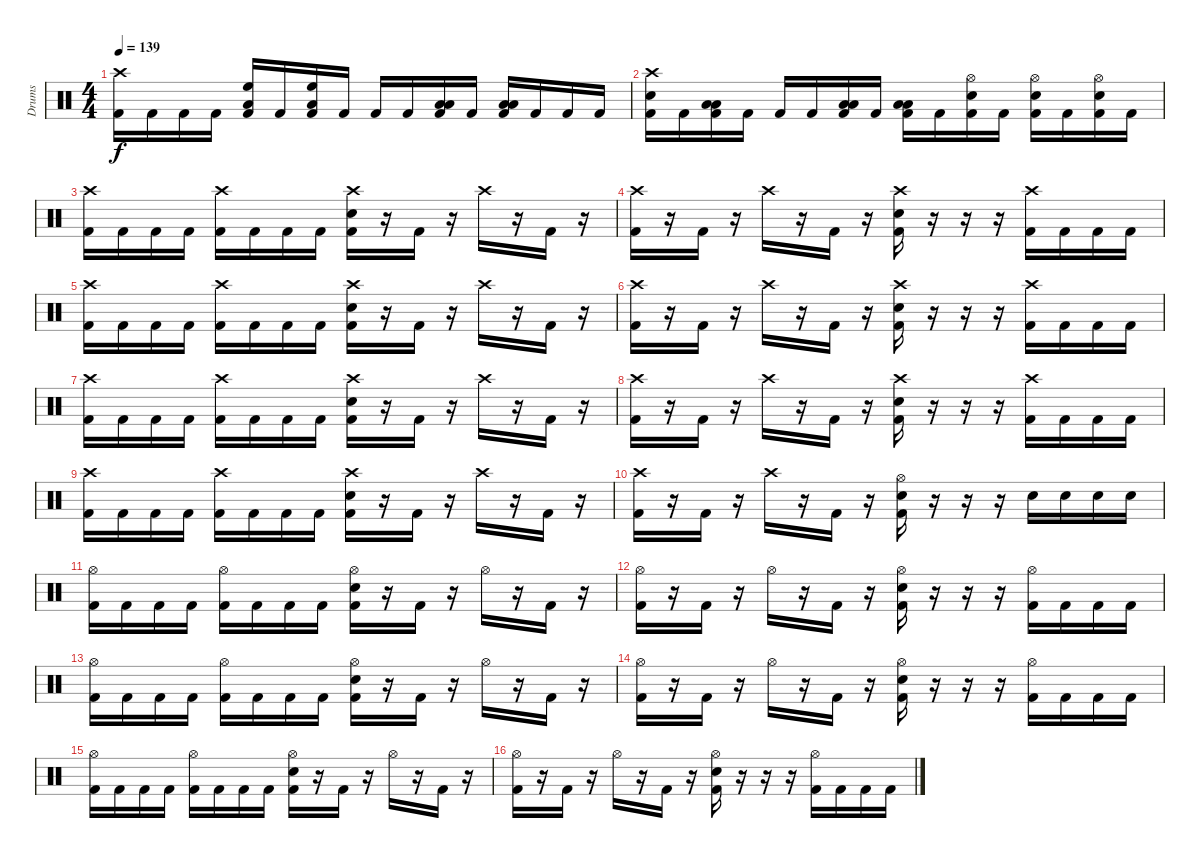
\track ("Drums" "Drums") {instrument percussion}
\staff {score}
\articulation defaults
\ts (4 4)
\tempo 139
\clef neutral
\ks c
("Crash high (hit)" "Kick (hit) 2").16{dy f} "Kick (hit) 2".16 "Kick (hit) 2".16 "Kick (hit) 2".16 ("High Floor Tom (hit)" "Low Floor Tom (hit)" "Kick (hit) 2").16 "Kick (hit) 2".16 ("High Floor Tom (hit)" "Low Floor Tom (hit)" "Kick (hit) 2").16 "Kick (hit) 2".16 "Kick (hit) 2".16 "Kick (hit) 2".16 ("Low Tom (hit)" "Low Floor Tom (hit)" "Kick (hit) 2").16 "Kick (hit) 2".16 ("Low Tom (hit)" "Low Floor Tom (hit)" "Kick (hit) 2").16 "Kick (hit) 2".16 "Kick (hit) 2".16 "Kick (hit) 2".16 |
("Crash high (hit)" "Electric Snare (hit)" "Kick (hit) 2").16 "Kick (hit) 2".16 ("Low Tom (hit)" "Low Floor Tom (hit)" "Kick (hit) 2").16 "Kick (hit) 2".16 "Kick (hit) 2".16 "Kick (hit) 2".16 ("Low Tom (hit)" "Low Floor Tom (hit)" "Kick (hit) 2").16 "Kick (hit) 2".16 ("Low Tom (hit)" "Low Floor Tom (hit)" "Kick (hit) 2").16 "Kick (hit) 2".16 ("Hi-Hat (open)" "Electric Snare (hit)" "Kick (hit) 2").16 "Kick (hit) 2".16 ("Hi-Hat (open)" "Electric Snare (hit)" "Kick (hit) 2").16 "Kick (hit) 2".16 ("Hi-Hat (open)" "Electric Snare (hit)" "Kick (hit) 2").16 "Kick (hit) 2".16 |
("Crash high (hit)" "Kick (hit) 2").16 "Kick (hit) 2".16 "Kick (hit) 2".16 "Kick (hit) 2".16 ("Crash high (hit)" "Kick (hit) 2").16 "Kick (hit) 2".16 "Kick (hit) 2".16 "Kick (hit) 2".16 ("Crash high (hit)" "Electric Snare (hit)" "Kick (hit) 2").16 r.16 "Kick (hit) 2".16 r.16 "Crash high (hit)".16 r.16 "Kick (hit) 2".16 r.16 |
("Crash high (hit)" "Kick (hit) 2").16 r.16 "Kick (hit) 2".16 r.16 "Crash high (hit)".16 r.16 "Kick (hit) 2".16 r.16 ("Crash high (hit)" "Electric Snare (hit)" "Kick (hit) 2").16 r.16 r.16 r.16 ("Crash high (hit)" "Kick (hit) 2").16 "Kick (hit) 2".16 "Kick (hit) 2".16 "Kick (hit) 2".16 |
("Crash high (hit)" "Kick (hit) 2").16 "Kick (hit) 2".16 "Kick (hit) 2".16 "Kick (hit) 2".16 ("Crash high (hit)" "Kick (hit) 2").16 "Kick (hit) 2".16 "Kick (hit) 2".16 "Kick (hit) 2".16 ("Crash high (hit)" "Electric Snare (hit)" "Kick (hit) 2").16 r.16 "Kick (hit) 2".16 r.16 "Crash high (hit)".16 r.16 "Kick (hit) 2".16 r.16 |
("Crash high (hit)" "Kick (hit) 2").16 r.16 "Kick (hit) 2".16 r.16 "Crash high (hit)".16 r.16 "Kick (hit) 2".16 r.16 ("Crash high (hit)" "Electric Snare (hit)" "Kick (hit) 2").16 r.16 r.16 r.16 ("Crash high (hit)" "Kick (hit) 2").16 "Kick (hit) 2".16 "Kick (hit) 2".16 "Kick (hit) 2".16 |
("Crash high (hit)" "Kick (hit) 2").16 "Kick (hit) 2".16 "Kick (hit) 2".16 "Kick (hit) 2".16 ("Crash high (hit)" "Kick (hit) 2").16 "Kick (hit) 2".16 "Kick (hit) 2".16 "Kick (hit) 2".16 ("Crash high (hit)" "Electric Snare (hit)" "Kick (hit) 2").16 r.16 "Kick (hit) 2".16 r.16 "Crash high (hit)".16 r.16 "Kick (hit) 2".16 r.16 |
("Crash high (hit)" "Kick (hit) 2").16 r.16 "Kick (hit) 2".16 r.16 "Crash high (hit)".16 r.16 "Kick (hit) 2".16 r.16 ("Crash high (hit)" "Electric Snare (hit)" "Kick (hit) 2").16 r.16 r.16 r.16 ("Crash high (hit)" "Kick (hit) 2").16 "Kick (hit) 2".16 "Kick (hit) 2".16 "Kick (hit) 2".16 |
("Crash high (hit)" "Kick (hit) 2").16 "Kick (hit) 2".16 "Kick (hit) 2".16 "Kick (hit) 2".16 ("Crash high (hit)" "Kick (hit) 2").16 "Kick (hit) 2".16 "Kick (hit) 2".16 "Kick (hit) 2".16 ("Crash high (hit)" "Electric Snare (hit)" "Kick (hit) 2").16 r.16 "Kick (hit) 2".16 r.16 "Crash high (hit)".16 r.16 "Kick (hit) 2".16 r.16 |
("Crash high (hit)" "Kick (hit) 2").16 r.16 "Kick (hit) 2".16 r.16 "Crash high (hit)".16 r.16 "Kick (hit) 2".16 r.16 ("Hi-Hat (open)" "Electric Snare (hit)" "Kick (hit) 2").16 r.16 r.16 r.16 "Electric Snare (hit)".16 "Electric Snare (hit)".16 "Electric Snare (hit)".16 "Electric Snare (hit)".16 |
("Hi-Hat (open)" "Kick (hit) 2").16 "Kick (hit) 2".16 "Kick (hit) 2".16 "Kick (hit) 2".16 ("Hi-Hat (open)" "Kick (hit) 2").16 "Kick (hit) 2".16 "Kick (hit) 2".16 "Kick (hit) 2".16 ("Hi-Hat (open)" "Electric Snare (hit)" "Kick (hit) 2").16 r.16 "Kick (hit) 2".16 r.16 "Hi-Hat (open)".16 r.16 "Kick (hit) 2".16 r.16 |
("Hi-Hat (open)" "Kick (hit) 2").16 r.16 "Kick (hit) 2".16 r.16 "Hi-Hat (open)".16 r.16 "Kick (hit) 2".16 r.16 ("Hi-Hat (open)" "Electric Snare (hit)" "Kick (hit) 2").16 r.16 r.16 r.16 ("Hi-Hat (open)" "Kick (hit) 2").16 "Kick (hit) 2".16 "Kick (hit) 2".16 "Kick (hit) 2".16 |
("Hi-Hat (open)" "Kick (hit) 2").16 "Kick (hit) 2".16 "Kick (hit) 2".16 "Kick (hit) 2".16 ("Hi-Hat (open)" "Kick (hit) 2").16 "Kick (hit) 2".16 "Kick (hit) 2".16 "Kick (hit) 2".16 ("Hi-Hat (open)" "Electric Snare (hit)" "Kick (hit) 2").16 r.16 "Kick (hit) 2".16 r.16 "Hi-Hat (open)".16 r.16 "Kick (hit) 2".16 r.16 |
("Hi-Hat (open)" "Kick (hit) 2").16 r.16 "Kick (hit) 2".16 r.16 "Hi-Hat (open)".16 r.16 "Kick (hit) 2".16 r.16 ("Hi-Hat (open)" "Electric Snare (hit)" "Kick (hit) 2").16 r.16 r.16 r.16 ("Hi-Hat (open)" "Kick (hit) 2").16 "Kick (hit) 2".16 "Kick (hit) 2".16 "Kick (hit) 2".16 |
("Hi-Hat (open)" "Kick (hit) 2").16 "Kick (hit) 2".16 "Kick (hit) 2".16 "Kick (hit) 2".16 ("Hi-Hat (open)" "Kick (hit) 2").16 "Kick (hit) 2".16 "Kick (hit) 2".16 "Kick (hit) 2".16 ("Hi-Hat (open)" "Electric Snare (hit)" "Kick (hit) 2").16 r.16 "Kick (hit) 2".16 r.16 "Hi-Hat (open)".16 r.16 "Kick (hit) 2".16 r.16 |
("Hi-Hat (open)" "Kick (hit) 2").16 r.16 "Kick (hit) 2".16 r.16 "Hi-Hat (open)".16 r.16 "Kick (hit) 2".16 r.16 ("Hi-Hat (open)" "Electric Snare (hit)" "Kick (hit) 2").16 r.16 r.16 r.16 ("Hi-Hat (open)" "Kick (hit) 2").16 "Kick (hit) 2".16 "Kick (hit) 2".16 "Kick (hit) 2".16
